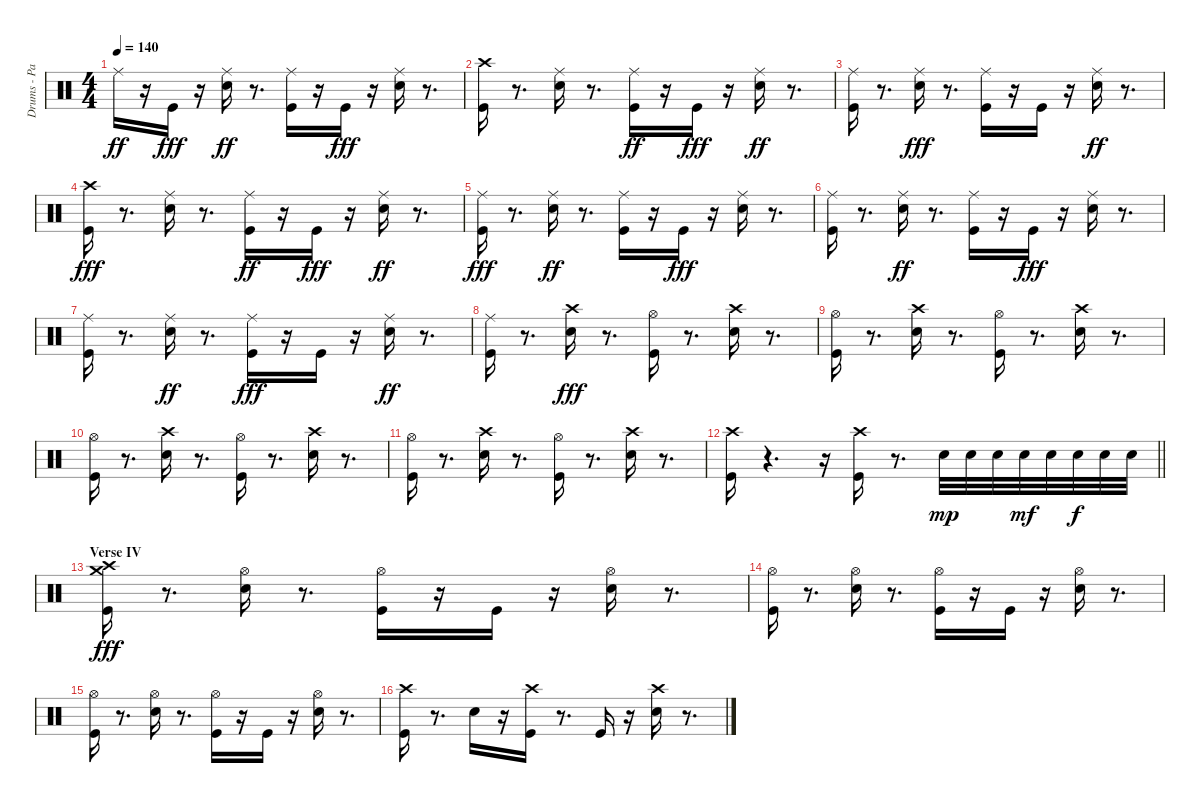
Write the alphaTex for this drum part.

\track ("Drums - Paice" "Drums - Pa") {instrument percussion}
\staff {score}
\articulation defaults
\ts (4 4)
\tempo 140
\clef neutral
\ks c "Ride (middle)".16{dy ff}
r.16 "Kick (hit)".16{dy fff} r.16 ("Snare (hit) 2" "Ride (middle)").16{dy ff} r.8{d} ("Kick (hit)" "Ride (middle)").16 r.16 "Kick (hit)".16{dy fff} r.16 ("Ride (middle)" "Snare (hit) 2").16 r.8{d} |
("Crash high (hit)" "Kick (hit)").16 r.8{d} ("Ride (middle)" "Snare (hit) 2").16 r.8{d} ("Kick (hit)" "Ride (middle)").16{dy ff} r.16 "Kick (hit)".16{dy fff} r.16 ("Snare (hit) 2" "Ride (middle)").16{dy ff} r.8{d} |
("Kick (hit)" "Ride (middle)").16 r.8{d} ("Ride (middle)" "Snare (hit) 2").16{dy fff} r.8{d} ("Ride (middle)" "Kick (hit)").16 r.16 "Kick (hit)".16 r.16 ("Snare (hit) 2" "Ride (middle)").16{dy ff} r.8{d} |
("Crash high (hit)" "Kick (hit)").16{dy fff} r.8{d} ("Ride (middle)" "Snare (hit) 2").16 r.8{d} ("Kick (hit)" "Ride (middle)").16{dy ff} r.16 "Kick (hit)".16{dy fff} r.16 ("Snare (hit) 2" "Ride (middle)").16{dy ff} r.8{d} |
("Ride (middle)" "Kick (hit)").16{dy fff} r.8{d} ("Snare (hit) 2" "Ride (middle)").16{dy ff} r.8{d} ("Kick (hit)" "Ride (middle)").16 r.16 "Kick (hit)".16{dy fff} r.16 ("Ride (middle)" "Snare (hit) 2").16 r.8{d} |
("Ride (middle)" "Kick (hit)").16 r.8{d} ("Snare (hit) 2" "Ride (middle)").16{dy ff} r.8{d} ("Kick (hit)" "Ride (middle)").16 r.16 "Kick (hit)".16{dy fff} r.16 ("Ride (middle)" "Snare (hit) 2").16 r.8{d} |
("Ride (middle)" "Kick (hit)").16 r.8{d} ("Snare (hit) 2" "Ride (middle)").16{dy ff} r.8{d} ("Ride (middle)" "Kick (hit)").16{dy fff} r.16 "Kick (hit)".16 r.16 ("Snare (hit) 2" "Ride (middle)").16{dy ff} r.8{d} |
("Kick (hit)" "Ride (middle)").16 r.8{d} ("Crash high (hit)" "Snare (hit) 2").16{dy fff} r.8{d} ("Hi-Hat (open)" "Kick (hit)").16 r.8{d} ("Crash high (hit)" "Snare (hit) 2").16 r.8{d} |
("Hi-Hat (open)" "Kick (hit)").16 r.8{d} ("Crash high (hit)" "Snare (hit) 2").16 r.8{d} ("Kick (hit)" "Hi-Hat (open)").16 r.8{d} ("Crash high (hit)" "Snare (hit) 2").16 r.8{d} |
("Kick (hit)" "Hi-Hat (open)").16 r.8{d} ("Snare (hit) 2" "Crash high (hit)").16 r.8{d} ("Kick (hit)" "Hi-Hat (open)").16 r.8{d} ("Crash high (hit)" "Snare (hit) 2").16 r.8{d} |
("Kick (hit)" "Hi-Hat (open)").16 r.8{d} ("Snare (hit) 2" "Crash high (hit)").16 r.8{d} ("Kick (hit)" "Hi-Hat (open)").16 r.8{d} ("Crash high (hit)" "Snare (hit) 2").16 r.8{d} |
\barLineRight lightlight
("Crash high (hit)" "Kick (hit)").16 r.4{d} r.16 ("Crash high (hit)" "Kick (hit)").16 r.8{d} "Snare (hit) 2".32{dy mp} "Snare (hit) 2".32 "Snare (hit) 2".32 "Snare (hit) 2".32{dy mf} "Snare (hit) 2".32 "Snare (hit) 2".32{dy f} "Snare (hit) 2".32 "Snare (hit) 2".32 |
\section ("" "Verse IV")
("Crash high (hit)" "Kick (hit)" "Crash medium (hit)").16{dy fff} r.8{d} ("Hi-Hat (open)" "Snare (hit) 2").16 r.8{d} ("Kick (hit)" "Hi-Hat (open)").16 r.16 "Kick (hit)".16 r.16 ("Snare (hit) 2" "Hi-Hat (open)").16 r.8{d} |
("Kick (hit)" "Hi-Hat (open)").16 r.8{d} ("Snare (hit) 2" "Hi-Hat (open)").16 r.8{d} ("Hi-Hat (open)" "Kick (hit)").16 r.16 "Kick (hit)".16 r.16 ("Snare (hit) 2" "Hi-Hat (open)").16 r.8{d} |
("Hi-Hat (open)" "Kick (hit)").16 r.8{d} ("Hi-Hat (open)" "Snare (hit) 2").16 r.8{d} ("Hi-Hat (open)" "Kick (hit)").16 r.16 "Kick (hit)".16 r.16 ("Snare (hit) 2" "Hi-Hat (open)").16 r.8{d} |
("Crash high (hit)" "Kick (hit)").16 r.8{d} "Snare (hit) 2".16 r.16 ("Crash high (hit)" "Kick (hit)").16 r.8{d} "Kick (hit)".16 r.16 ("Snare (hit) 2" "Crash high (hit)").16 r.8{d}
